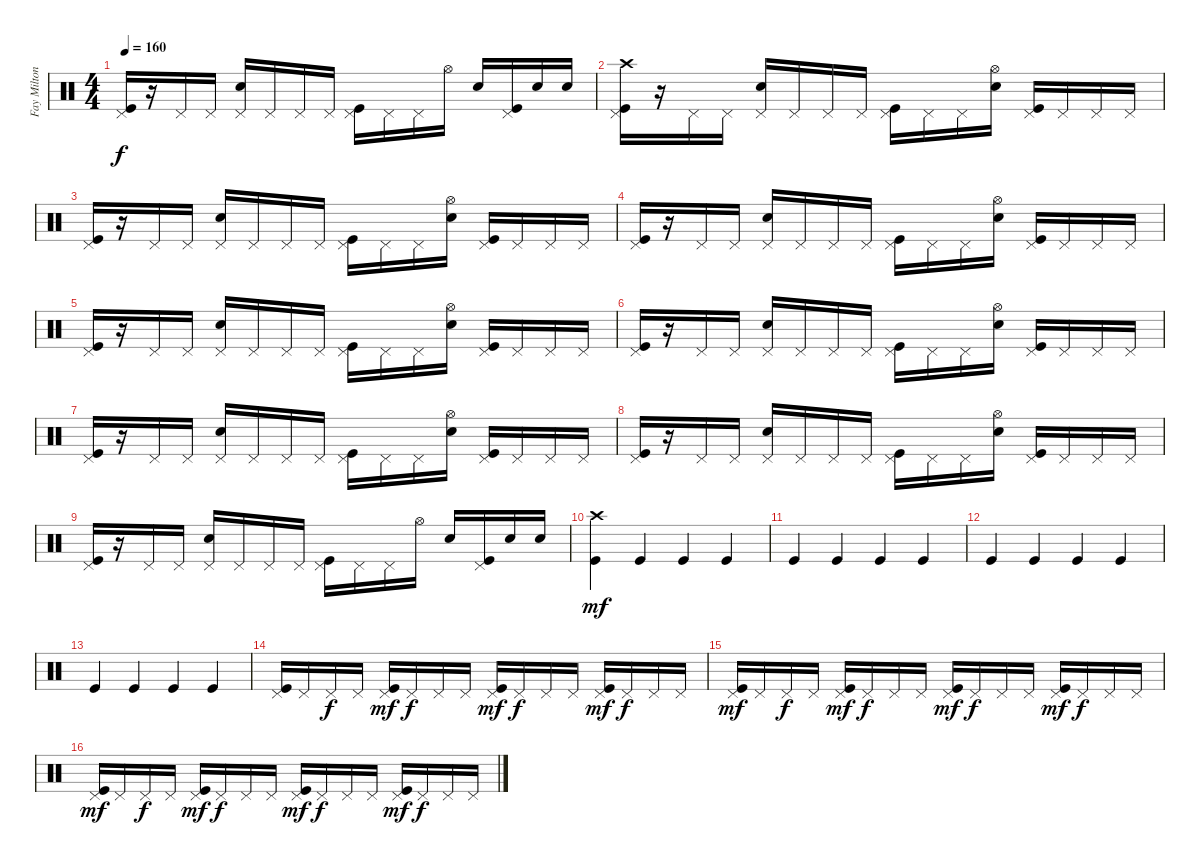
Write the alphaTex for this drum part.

\track ("Fay Milton - Drums" "Fay Milton") {instrument percussion}
\staff {score}
\articulation defaults
\ts (4 4)
\tempo 160
\clef neutral
\ks c
("Pedal Hi-Hat (hit)" "Kick (hit)").16{dy f} r.16 "Pedal Hi-Hat (hit)".16 "Pedal Hi-Hat (hit)".16 ("Pedal Hi-Hat (hit)" "Snare (hit) 2").16 "Pedal Hi-Hat (hit)".16 "Pedal Hi-Hat (hit)".16 "Pedal Hi-Hat (hit)".16 ("Pedal Hi-Hat (hit)" "Kick (hit)").16 "Pedal Hi-Hat (hit)".16 "Pedal Hi-Hat (hit)".16 "Hi-Hat (open)".16 "Snare (hit) 2".16 ("Pedal Hi-Hat (hit)" "Kick (hit)").16 "Snare (hit) 2".16 "Snare (hit) 2".16 |
("Crash high (hit)" "Pedal Hi-Hat (hit)" "Kick (hit)").16 r.16 "Pedal Hi-Hat (hit)".16 "Pedal Hi-Hat (hit)".16 ("Pedal Hi-Hat (hit)" "Snare (hit) 2").16 "Pedal Hi-Hat (hit)".16 "Pedal Hi-Hat (hit)".16 "Pedal Hi-Hat (hit)".16 ("Pedal Hi-Hat (hit)" "Kick (hit)").16 "Pedal Hi-Hat (hit)".16 "Pedal Hi-Hat (hit)".16 ("Hi-Hat (open)" "Snare (hit) 2").16 ("Pedal Hi-Hat (hit)" "Kick (hit)").16 "Pedal Hi-Hat (hit)".16 "Pedal Hi-Hat (hit)".16 "Pedal Hi-Hat (hit)".16 |
("Pedal Hi-Hat (hit)" "Kick (hit)").16 r.16 "Pedal Hi-Hat (hit)".16 "Pedal Hi-Hat (hit)".16 ("Pedal Hi-Hat (hit)" "Snare (hit) 2").16 "Pedal Hi-Hat (hit)".16 "Pedal Hi-Hat (hit)".16 "Pedal Hi-Hat (hit)".16 ("Pedal Hi-Hat (hit)" "Kick (hit)").16 "Pedal Hi-Hat (hit)".16 "Pedal Hi-Hat (hit)".16 ("Hi-Hat (open)" "Snare (hit) 2").16 ("Pedal Hi-Hat (hit)" "Kick (hit)").16 "Pedal Hi-Hat (hit)".16 "Pedal Hi-Hat (hit)".16 "Pedal Hi-Hat (hit)".16 |
("Pedal Hi-Hat (hit)" "Kick (hit)").16 r.16 "Pedal Hi-Hat (hit)".16 "Pedal Hi-Hat (hit)".16 ("Pedal Hi-Hat (hit)" "Snare (hit) 2").16 "Pedal Hi-Hat (hit)".16 "Pedal Hi-Hat (hit)".16 "Pedal Hi-Hat (hit)".16 ("Pedal Hi-Hat (hit)" "Kick (hit)").16 "Pedal Hi-Hat (hit)".16 "Pedal Hi-Hat (hit)".16 ("Hi-Hat (open)" "Snare (hit) 2").16 ("Pedal Hi-Hat (hit)" "Kick (hit)").16 "Pedal Hi-Hat (hit)".16 "Pedal Hi-Hat (hit)".16 "Pedal Hi-Hat (hit)".16 |
("Pedal Hi-Hat (hit)" "Kick (hit)").16 r.16 "Pedal Hi-Hat (hit)".16 "Pedal Hi-Hat (hit)".16 ("Pedal Hi-Hat (hit)" "Snare (hit) 2").16 "Pedal Hi-Hat (hit)".16 "Pedal Hi-Hat (hit)".16 "Pedal Hi-Hat (hit)".16 ("Pedal Hi-Hat (hit)" "Kick (hit)").16 "Pedal Hi-Hat (hit)".16 "Pedal Hi-Hat (hit)".16 ("Hi-Hat (open)" "Snare (hit) 2").16 ("Pedal Hi-Hat (hit)" "Kick (hit)").16 "Pedal Hi-Hat (hit)".16 "Pedal Hi-Hat (hit)".16 "Pedal Hi-Hat (hit)".16 |
("Pedal Hi-Hat (hit)" "Kick (hit)").16 r.16 "Pedal Hi-Hat (hit)".16 "Pedal Hi-Hat (hit)".16 ("Pedal Hi-Hat (hit)" "Snare (hit) 2").16 "Pedal Hi-Hat (hit)".16 "Pedal Hi-Hat (hit)".16 "Pedal Hi-Hat (hit)".16 ("Pedal Hi-Hat (hit)" "Kick (hit)").16 "Pedal Hi-Hat (hit)".16 "Pedal Hi-Hat (hit)".16 ("Hi-Hat (open)" "Snare (hit) 2").16 ("Pedal Hi-Hat (hit)" "Kick (hit)").16 "Pedal Hi-Hat (hit)".16 "Pedal Hi-Hat (hit)".16 "Pedal Hi-Hat (hit)".16 |
("Pedal Hi-Hat (hit)" "Kick (hit)").16 r.16 "Pedal Hi-Hat (hit)".16 "Pedal Hi-Hat (hit)".16 ("Pedal Hi-Hat (hit)" "Snare (hit) 2").16 "Pedal Hi-Hat (hit)".16 "Pedal Hi-Hat (hit)".16 "Pedal Hi-Hat (hit)".16 ("Pedal Hi-Hat (hit)" "Kick (hit)").16 "Pedal Hi-Hat (hit)".16 "Pedal Hi-Hat (hit)".16 ("Hi-Hat (open)" "Snare (hit) 2").16 ("Pedal Hi-Hat (hit)" "Kick (hit)").16 "Pedal Hi-Hat (hit)".16 "Pedal Hi-Hat (hit)".16 "Pedal Hi-Hat (hit)".16 |
("Pedal Hi-Hat (hit)" "Kick (hit)").16 r.16 "Pedal Hi-Hat (hit)".16 "Pedal Hi-Hat (hit)".16 ("Pedal Hi-Hat (hit)" "Snare (hit) 2").16 "Pedal Hi-Hat (hit)".16 "Pedal Hi-Hat (hit)".16 "Pedal Hi-Hat (hit)".16 ("Pedal Hi-Hat (hit)" "Kick (hit)").16 "Pedal Hi-Hat (hit)".16 "Pedal Hi-Hat (hit)".16 ("Hi-Hat (open)" "Snare (hit) 2").16 ("Pedal Hi-Hat (hit)" "Kick (hit)").16 "Pedal Hi-Hat (hit)".16 "Pedal Hi-Hat (hit)".16 "Pedal Hi-Hat (hit)".16 |
("Pedal Hi-Hat (hit)" "Kick (hit)").16 r.16 "Pedal Hi-Hat (hit)".16 "Pedal Hi-Hat (hit)".16 ("Pedal Hi-Hat (hit)" "Snare (hit) 2").16 "Pedal Hi-Hat (hit)".16 "Pedal Hi-Hat (hit)".16 "Pedal Hi-Hat (hit)".16 ("Pedal Hi-Hat (hit)" "Kick (hit)").16 "Pedal Hi-Hat (hit)".16 "Pedal Hi-Hat (hit)".16 "Hi-Hat (open)".16 "Snare (hit) 2".16 ("Pedal Hi-Hat (hit)" "Kick (hit)").16 "Snare (hit) 2".16 "Snare (hit) 2".16 |
("Crash high (hit)" "Kick (hit)").4{dy mf} "Kick (hit)".4 "Kick (hit)".4 "Kick (hit)".4 |
"Kick (hit)".4 "Kick (hit)".4 "Kick (hit)".4 "Kick (hit)".4 |
"Kick (hit)".4 "Kick (hit)".4 "Kick (hit)".4 "Kick (hit)".4 |
"Kick (hit)".4 "Kick (hit)".4 "Kick (hit)".4 "Kick (hit)".4 |
("Pedal Hi-Hat (hit)" "Kick (hit)").16 "Pedal Hi-Hat (hit)".16 "Pedal Hi-Hat (hit)".16{dy f} "Pedal Hi-Hat (hit)".16 ("Pedal Hi-Hat (hit)" "Kick (hit)").16{dy mf} "Pedal Hi-Hat (hit)".16{dy f} "Pedal Hi-Hat (hit)".16 "Pedal Hi-Hat (hit)".16 ("Pedal Hi-Hat (hit)" "Kick (hit)").16{dy mf} "Pedal Hi-Hat (hit)".16{dy f} "Pedal Hi-Hat (hit)".16 "Pedal Hi-Hat (hit)".16 ("Pedal Hi-Hat (hit)" "Kick (hit)").16{dy mf} "Pedal Hi-Hat (hit)".16{dy f} "Pedal Hi-Hat (hit)".16 "Pedal Hi-Hat (hit)".16 |
("Pedal Hi-Hat (hit)" "Kick (hit)").16{dy mf} "Pedal Hi-Hat (hit)".16 "Pedal Hi-Hat (hit)".16{dy f} "Pedal Hi-Hat (hit)".16 ("Pedal Hi-Hat (hit)" "Kick (hit)").16{dy mf} "Pedal Hi-Hat (hit)".16{dy f} "Pedal Hi-Hat (hit)".16 "Pedal Hi-Hat (hit)".16 ("Pedal Hi-Hat (hit)" "Kick (hit)").16{dy mf} "Pedal Hi-Hat (hit)".16{dy f} "Pedal Hi-Hat (hit)".16 "Pedal Hi-Hat (hit)".16 ("Pedal Hi-Hat (hit)" "Kick (hit)").16{dy mf} "Pedal Hi-Hat (hit)".16{dy f} "Pedal Hi-Hat (hit)".16 "Pedal Hi-Hat (hit)".16 |
("Pedal Hi-Hat (hit)" "Kick (hit)").16{dy mf} "Pedal Hi-Hat (hit)".16 "Pedal Hi-Hat (hit)".16{dy f} "Pedal Hi-Hat (hit)".16 ("Pedal Hi-Hat (hit)" "Kick (hit)").16{dy mf} "Pedal Hi-Hat (hit)".16{dy f} "Pedal Hi-Hat (hit)".16 "Pedal Hi-Hat (hit)".16 ("Pedal Hi-Hat (hit)" "Kick (hit)").16{dy mf} "Pedal Hi-Hat (hit)".16{dy f} "Pedal Hi-Hat (hit)".16 "Pedal Hi-Hat (hit)".16 ("Pedal Hi-Hat (hit)" "Kick (hit)").16{dy mf} "Pedal Hi-Hat (hit)".16{dy f} "Pedal Hi-Hat (hit)".16 "Pedal Hi-Hat (hit)".16
